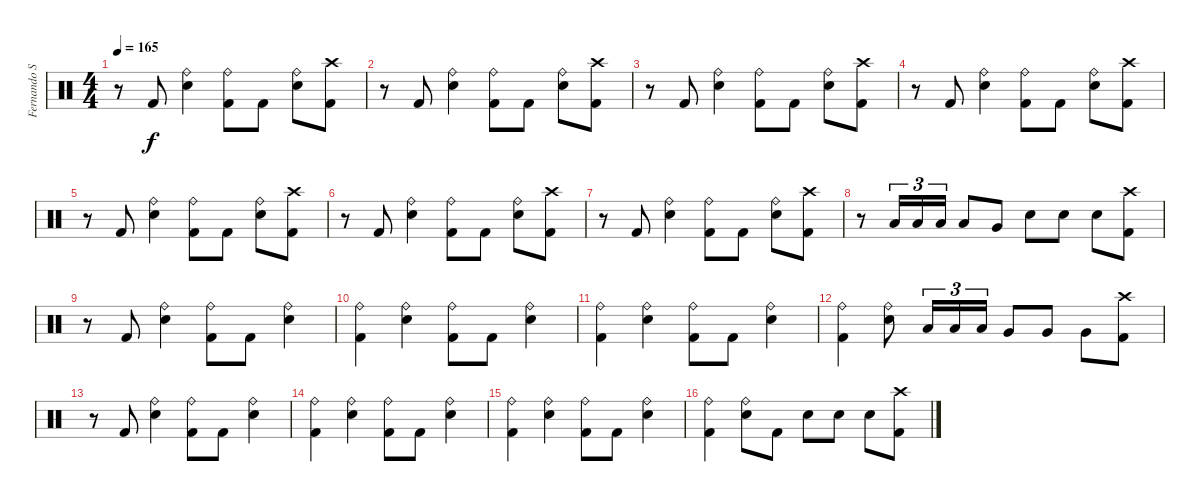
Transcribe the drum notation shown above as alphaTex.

\track ("Fernando Scarcella" "Fernando S") {instrument percussion}
\staff {score}
\articulation defaults
\ts (4 4)
\tempo 165
\clef neutral
\ks c
r.8{dy f} "Kick (hit) 2".8 ("Ride (bell)" "Snare (hit) 2").4 ("Ride (bell)" "Kick (hit) 2").8 "Kick (hit) 2".8 ("Ride (bell)" "Snare (hit) 2").8 ("Crash high (hit)" "Kick (hit) 2").8 |
r.8 "Kick (hit) 2".8 ("Ride (bell)" "Snare (hit) 2").4 ("Ride (bell)" "Kick (hit) 2").8 "Kick (hit) 2".8 ("Ride (bell)" "Snare (hit) 2").8 ("Crash high (hit)" "Kick (hit) 2").8 |
r.8 "Kick (hit) 2".8 ("Ride (bell)" "Snare (hit) 2").4 ("Ride (bell)" "Kick (hit) 2").8 "Kick (hit) 2".8 ("Ride (bell)" "Snare (hit) 2").8 ("Crash high (hit)" "Kick (hit) 2").8 |
r.8 "Kick (hit) 2".8 ("Ride (bell)" "Snare (hit) 2").4 ("Ride (bell)" "Kick (hit) 2").8 "Kick (hit) 2".8 ("Ride (bell)" "Snare (hit) 2").8 ("Crash high (hit)" "Kick (hit) 2").8 |
r.8 "Kick (hit) 2".8 ("Ride (bell)" "Snare (hit) 2").4 ("Ride (bell)" "Kick (hit) 2").8 "Kick (hit) 2".8 ("Ride (bell)" "Snare (hit) 2").8 ("Crash high (hit)" "Kick (hit) 2").8 |
r.8 "Kick (hit) 2".8 ("Ride (bell)" "Snare (hit) 2").4 ("Ride (bell)" "Kick (hit) 2").8 "Kick (hit) 2".8 ("Ride (bell)" "Snare (hit) 2").8 ("Crash high (hit)" "Kick (hit) 2").8 |
r.8 "Kick (hit) 2".8 ("Ride (bell)" "Snare (hit) 2").4 ("Ride (bell)" "Kick (hit) 2").8 "Kick (hit) 2".8 ("Ride (bell)" "Snare (hit) 2").8 ("Crash high (hit)" "Kick (hit) 2").8 |
r.8 "Low Tom (hit)".16{tu (3 2)} "Low Tom (hit)".16{tu (3 2)} "Low Tom (hit)".16{tu (3 2)} "Low Tom (hit)".8 "Very Low Tom (hit)".8 "Snare (hit) 2".8 "Snare (hit) 2".8 "Snare (hit) 2".8 ("Crash high (hit)" "Kick (hit) 2").8 |
r.8 "Kick (hit) 2".8 ("Ride (bell)" "Snare (hit) 2").4 ("Ride (bell)" "Kick (hit) 2").8 "Kick (hit) 2".8 ("Ride (bell)" "Snare (hit) 2").4 |
("Ride (bell)" "Kick (hit) 2").4 ("Ride (bell)" "Snare (hit) 2").4 ("Ride (bell)" "Kick (hit) 2").8 "Kick (hit) 2".8 ("Ride (bell)" "Snare (hit) 2").4 |
("Ride (bell)" "Kick (hit) 2").4 ("Ride (bell)" "Snare (hit) 2").4 ("Ride (bell)" "Kick (hit) 2").8 "Kick (hit) 2".8 ("Ride (bell)" "Snare (hit) 2").4 |
("Ride (bell)" "Kick (hit) 2").4 ("Ride (bell)" "Snare (hit) 2").8 "Low Tom (hit)".16{tu (3 2)} "Low Tom (hit)".16{tu (3 2)} "Low Tom (hit)".16{tu (3 2)} "Very Low Tom (hit)".8 "Very Low Tom (hit)".8 "Very Low Tom (hit)".8 ("Crash high (hit)" "Kick (hit) 2").8 |
r.8 "Kick (hit) 2".8 ("Ride (bell)" "Snare (hit) 2").4 ("Ride (bell)" "Kick (hit) 2").8 "Kick (hit) 2".8 ("Ride (bell)" "Snare (hit) 2").4 |
("Ride (bell)" "Kick (hit) 2").4 ("Ride (bell)" "Snare (hit) 2").4 ("Ride (bell)" "Kick (hit) 2").8 "Kick (hit) 2".8 ("Ride (bell)" "Snare (hit) 2").4 |
("Ride (bell)" "Kick (hit) 2").4 ("Ride (bell)" "Snare (hit) 2").4 ("Ride (bell)" "Kick (hit) 2").8 "Kick (hit) 2".8 ("Ride (bell)" "Snare (hit) 2").4 |
("Ride (bell)" "Kick (hit) 2").4 ("Ride (bell)" "Snare (hit) 2").8 "Kick (hit) 2".8 "Snare (hit) 2".8 "Snare (hit) 2".8 "Snare (hit) 2".8 ("Crash high (hit)" "Kick (hit) 2").8
